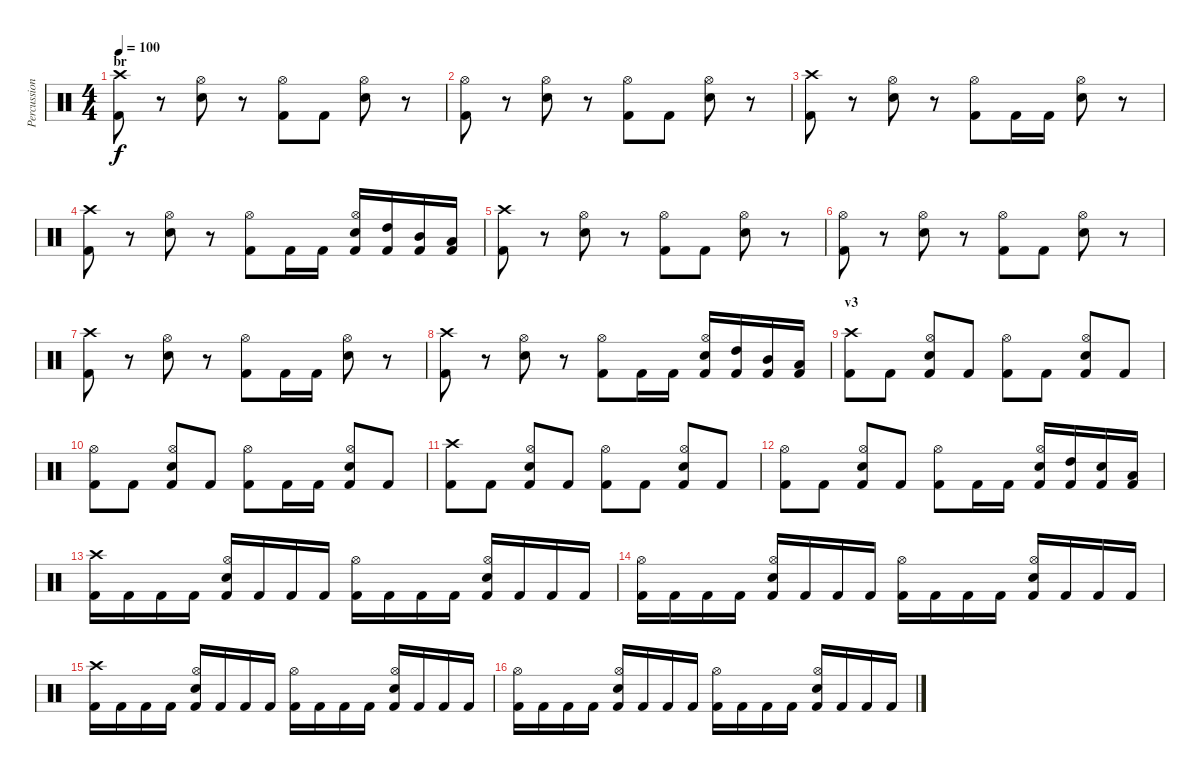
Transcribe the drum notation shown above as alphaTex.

\track ("Percussion" "Percussion") {instrument percussion}
\staff {score}
\articulation defaults
\ts (4 4)
\section ("" "br")
\tempo 100
\clef neutral
\ks c
("Crash high (hit)" "Kick (hit) 2").8{dy f} r.8 ("Hi-Hat (open)" "Electric Snare (hit)").8 r.8 ("Hi-Hat (open)" "Kick (hit) 2").8 "Kick (hit) 2".8 ("Hi-Hat (open)" "Electric Snare (hit)").8 r.8 |
("Hi-Hat (open)" "Kick (hit) 2").8 r.8 ("Hi-Hat (open)" "Electric Snare (hit)").8 r.8 ("Hi-Hat (open)" "Kick (hit) 2").8 "Kick (hit) 2".8 ("Hi-Hat (open)" "Electric Snare (hit)").8 r.8 |
("Crash high (hit)" "Kick (hit) 2").8 r.8 ("Hi-Hat (open)" "Electric Snare (hit)").8 r.8 ("Hi-Hat (open)" "Kick (hit) 2").8 "Kick (hit) 2".16 "Kick (hit) 2".16 ("Hi-Hat (open)" "Electric Snare (hit)").8 r.8 |
("Crash high (hit)" "Kick (hit) 2").8 r.8 ("Hi-Hat (open)" "Electric Snare (hit)").8 r.8 ("Hi-Hat (open)" "Kick (hit) 2").8 "Kick (hit) 2".16 "Kick (hit) 2".16 ("Hi-Hat (open)" "Electric Snare (hit)" "Kick (hit) 2").16 ("High Tom (hit)" "Kick (hit) 2").16 ("Mid Tom (hit)" "Kick (hit) 2").16 ("Low Tom (hit)" "Kick (hit) 2").16 |
("Crash high (hit)" "Kick (hit) 2").8 r.8 ("Hi-Hat (open)" "Electric Snare (hit)").8 r.8 ("Hi-Hat (open)" "Kick (hit) 2").8 "Kick (hit) 2".8 ("Hi-Hat (open)" "Electric Snare (hit)").8 r.8 |
("Hi-Hat (open)" "Kick (hit) 2").8 r.8 ("Hi-Hat (open)" "Electric Snare (hit)").8 r.8 ("Hi-Hat (open)" "Kick (hit) 2").8 "Kick (hit) 2".8 ("Hi-Hat (open)" "Electric Snare (hit)").8 r.8 |
("Crash high (hit)" "Kick (hit) 2").8 r.8 ("Hi-Hat (open)" "Electric Snare (hit)").8 r.8 ("Hi-Hat (open)" "Kick (hit) 2").8 "Kick (hit) 2".16 "Kick (hit) 2".16 ("Hi-Hat (open)" "Electric Snare (hit)").8 r.8 |
("Crash high (hit)" "Kick (hit) 2").8 r.8 ("Hi-Hat (open)" "Electric Snare (hit)").8 r.8 ("Hi-Hat (open)" "Kick (hit) 2").8 "Kick (hit) 2".16 "Kick (hit) 2".16 ("Hi-Hat (open)" "Electric Snare (hit)" "Kick (hit) 2").16 ("High Tom (hit)" "Kick (hit) 2").16 ("Mid Tom (hit)" "Kick (hit) 2").16 ("Low Tom (hit)" "Kick (hit) 2").16 |
\section ("" "v3")
("Crash high (hit)" "Kick (hit) 2").8 "Kick (hit) 2".8 ("Hi-Hat (open)" "Electric Snare (hit)" "Kick (hit) 2").8 "Kick (hit) 2".8 ("Hi-Hat (open)" "Kick (hit) 2").8 "Kick (hit) 2".8 ("Hi-Hat (open)" "Electric Snare (hit)" "Kick (hit) 2").8 "Kick (hit) 2".8 |
("Hi-Hat (open)" "Kick (hit) 2").8 "Kick (hit) 2".8 ("Hi-Hat (open)" "Electric Snare (hit)" "Kick (hit) 2").8 "Kick (hit) 2".8 ("Hi-Hat (open)" "Kick (hit) 2").8 "Kick (hit) 2".16 "Kick (hit) 2".16 ("Hi-Hat (open)" "Electric Snare (hit)" "Kick (hit) 2").8 "Kick (hit) 2".8 |
("Crash high (hit)" "Kick (hit) 2").8 "Kick (hit) 2".8 ("Hi-Hat (open)" "Electric Snare (hit)" "Kick (hit) 2").8 "Kick (hit) 2".8 ("Hi-Hat (open)" "Kick (hit) 2").8 "Kick (hit) 2".8 ("Hi-Hat (open)" "Electric Snare (hit)" "Kick (hit) 2").8 "Kick (hit) 2".8 |
("Hi-Hat (open)" "Kick (hit) 2").8 "Kick (hit) 2".8 ("Hi-Hat (open)" "Electric Snare (hit)" "Kick (hit) 2").8 "Kick (hit) 2".8 ("Hi-Hat (open)" "Kick (hit) 2").8 "Kick (hit) 2".16 "Kick (hit) 2".16 ("Hi-Hat (open)" "Electric Snare (hit)" "Kick (hit) 2").16 ("High Tom (hit)" "Kick (hit) 2").16 ("Electric Snare (hit)" "Kick (hit) 2").16 ("Low Tom (hit)" "Kick (hit) 2").16 |
("Crash high (hit)" "Kick (hit) 2").16 "Kick (hit) 2".16 "Kick (hit) 2".16 "Kick (hit) 2".16 ("Hi-Hat (open)" "Electric Snare (hit)" "Kick (hit) 2").16 "Kick (hit) 2".16 "Kick (hit) 2".16 "Kick (hit) 2".16 ("Hi-Hat (open)" "Kick (hit) 2").16 "Kick (hit) 2".16 "Kick (hit) 2".16 "Kick (hit) 2".16 ("Hi-Hat (open)" "Electric Snare (hit)" "Kick (hit) 2").16 "Kick (hit) 2".16 "Kick (hit) 2".16 "Kick (hit) 2".16 |
("Hi-Hat (open)" "Kick (hit) 2").16 "Kick (hit) 2".16 "Kick (hit) 2".16 "Kick (hit) 2".16 ("Hi-Hat (open)" "Electric Snare (hit)" "Kick (hit) 2").16 "Kick (hit) 2".16 "Kick (hit) 2".16 "Kick (hit) 2".16 ("Hi-Hat (open)" "Kick (hit) 2").16 "Kick (hit) 2".16 "Kick (hit) 2".16 "Kick (hit) 2".16 ("Hi-Hat (open)" "Electric Snare (hit)" "Kick (hit) 2").16 "Kick (hit) 2".16 "Kick (hit) 2".16 "Kick (hit) 2".16 |
("Crash high (hit)" "Kick (hit) 2").16 "Kick (hit) 2".16 "Kick (hit) 2".16 "Kick (hit) 2".16 ("Hi-Hat (open)" "Electric Snare (hit)" "Kick (hit) 2").16 "Kick (hit) 2".16 "Kick (hit) 2".16 "Kick (hit) 2".16 ("Hi-Hat (open)" "Kick (hit) 2").16 "Kick (hit) 2".16 "Kick (hit) 2".16 "Kick (hit) 2".16 ("Hi-Hat (open)" "Electric Snare (hit)" "Kick (hit) 2").16 "Kick (hit) 2".16 "Kick (hit) 2".16 "Kick (hit) 2".16 |
("Hi-Hat (open)" "Kick (hit) 2").16 "Kick (hit) 2".16 "Kick (hit) 2".16 "Kick (hit) 2".16 ("Hi-Hat (open)" "Electric Snare (hit)" "Kick (hit) 2").16 "Kick (hit) 2".16 "Kick (hit) 2".16 "Kick (hit) 2".16 ("Hi-Hat (open)" "Kick (hit) 2").16 "Kick (hit) 2".16 "Kick (hit) 2".16 "Kick (hit) 2".16 ("Hi-Hat (open)" "Electric Snare (hit)" "Kick (hit) 2").16 "Kick (hit) 2".16 "Kick (hit) 2".16 "Kick (hit) 2".16
